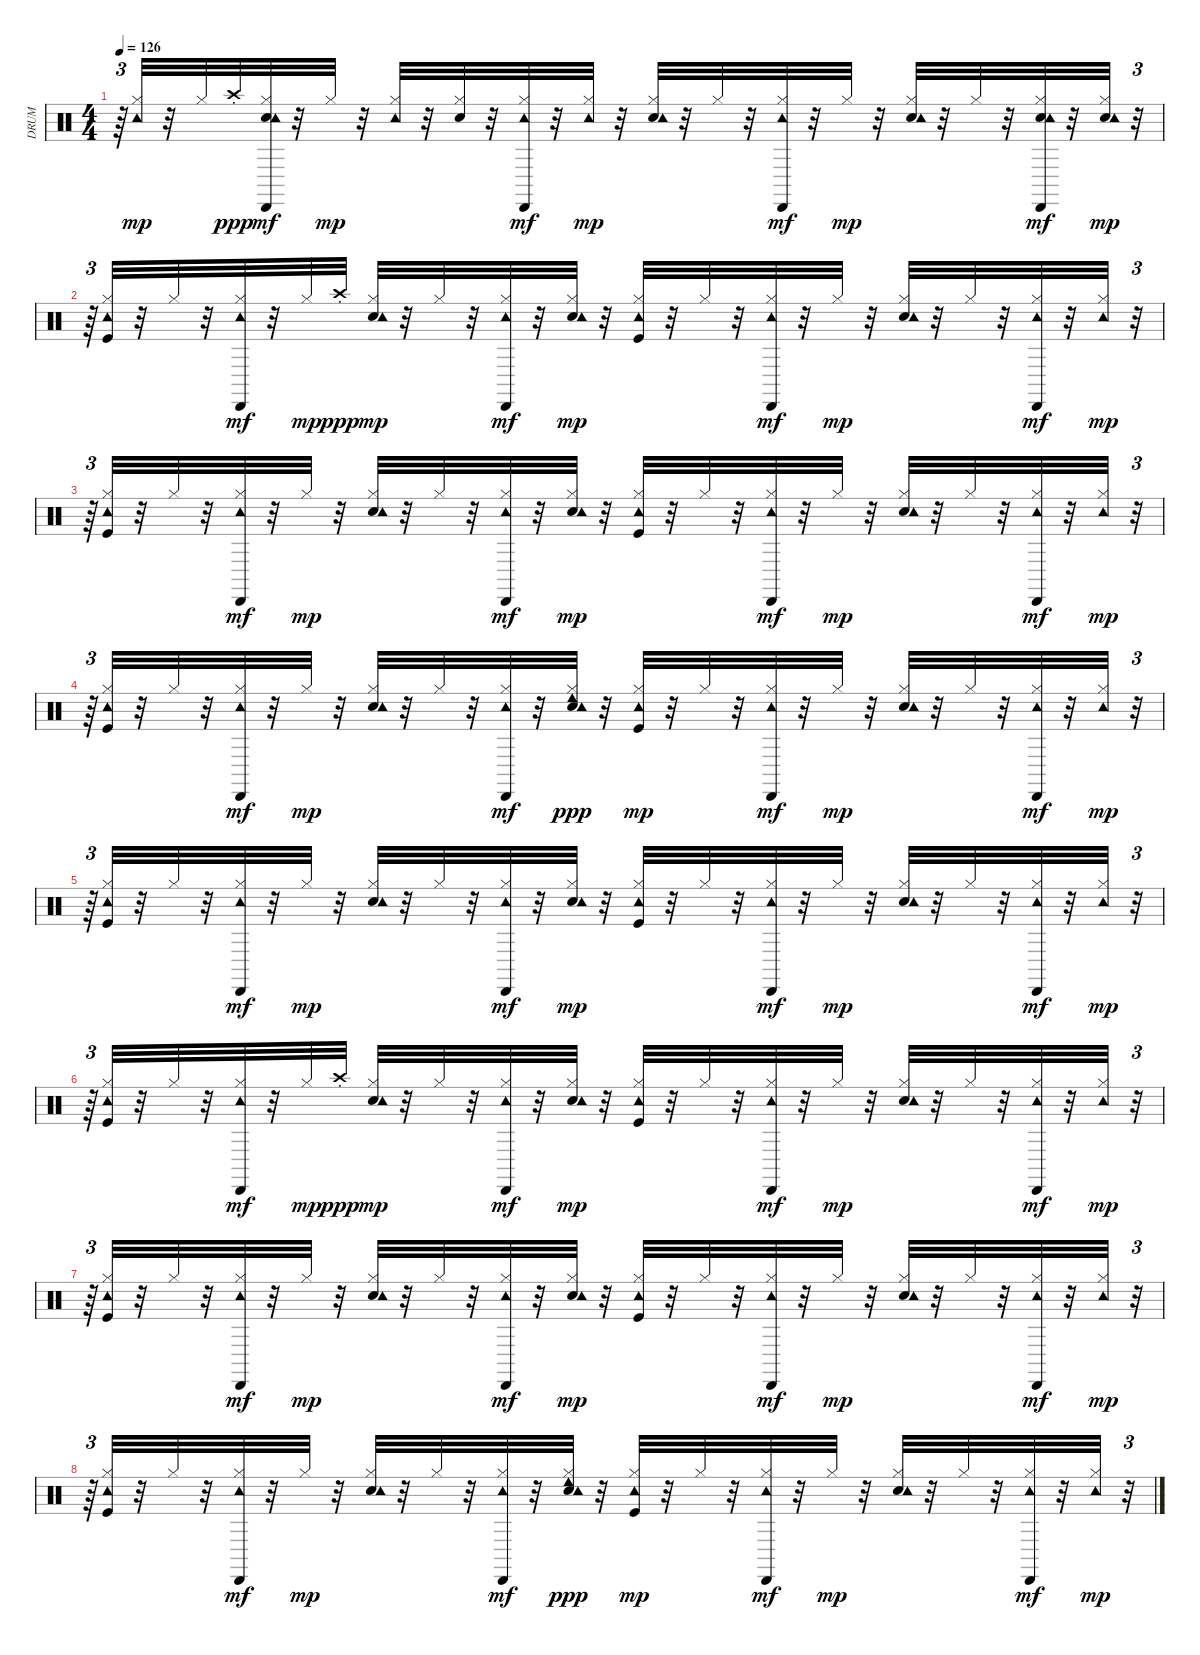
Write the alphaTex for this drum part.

\track ("DRUM" "DRUM") {instrument percussion}
\staff {score}
\articulation defaults
\ts (4 4)
\tempo 126
\clef neutral
\ks c
r.64{tu (3 2) dy mp} ("Hi-Hat (closed)" "Tambourine (hit)").32 r.32 "Hi-Hat (closed)".32 "Crash high (choke)".32{dy ppp} ("Snare (hit) 2" "Hi-Hat (closed)" "Tambourine (hit)" "Cabasa (hit)").32{dy mf} r.32 "Hi-Hat (closed)".32{dy mp} r.32 ("Hi-Hat (closed)" "Tambourine (hit)").32 r.32 ("Snare (hit) 2" "Hi-Hat (closed)").32 r.32 ("Hi-Hat (closed)" "Tambourine (hit)" "Cabasa (hit)").32{dy mf} r.32 ("Hi-Hat (closed)" "Tambourine (hit)").32{dy mp} r.32 ("Snare (hit) 2" "Hi-Hat (closed)" "Tambourine (hit)").32 r.32 "Hi-Hat (closed)".32 r.32 ("Hi-Hat (closed)" "Tambourine (hit)" "Cabasa (hit)").32{dy mf} r.32 "Hi-Hat (closed)".32{dy mp} r.32 ("Snare (hit) 2" "Hi-Hat (closed)" "Tambourine (hit)").32 r.32 "Hi-Hat (closed)".32 r.32 ("Snare (hit) 2" "Hi-Hat (closed)" "Tambourine (hit)" "Cabasa (hit)").32{dy mf} r.32 ("Snare (hit) 2" "Hi-Hat (closed)" "Tambourine (hit)").32{dy mp} r.32{tu (3 2)} |
r.64{tu (3 2)} ("Kick (hit)" "Hi-Hat (closed)" "Tambourine (hit)").32 r.32 "Hi-Hat (closed)".32 r.32 ("Hi-Hat (closed)" "Tambourine (hit)" "Cabasa (hit)").32{dy mf} r.32 "Hi-Hat (closed)".32{dy mp} "Crash high (choke)".32{dy ppp} ("Snare (hit) 2" "Hi-Hat (closed)" "Tambourine (hit)").32{dy mp} r.32 "Hi-Hat (closed)".32 r.32 ("Hi-Hat (closed)" "Tambourine (hit)" "Cabasa (hit)").32{dy mf} r.32 ("Snare (hit) 2" "Hi-Hat (closed)" "Tambourine (hit)").32{dy mp} r.32 ("Kick (hit)" "Hi-Hat (closed)" "Tambourine (hit)").32 r.32 "Hi-Hat (closed)".32 r.32 ("Hi-Hat (closed)" "Tambourine (hit)" "Cabasa (hit)").32{dy mf} r.32 "Hi-Hat (closed)".32{dy mp} r.32 ("Snare (hit) 2" "Hi-Hat (closed)" "Tambourine (hit)").32 r.32 "Hi-Hat (closed)".32 r.32 ("Hi-Hat (closed)" "Tambourine (hit)" "Cabasa (hit)").32{dy mf} r.32 ("Hi-Hat (closed)" "Tambourine (hit)").32{dy mp} r.32{tu (3 2)} |
r.64{tu (3 2)} ("Kick (hit)" "Hi-Hat (closed)" "Tambourine (hit)").32 r.32 "Hi-Hat (closed)".32 r.32 ("Hi-Hat (closed)" "Tambourine (hit)" "Cabasa (hit)").32{dy mf} r.32 "Hi-Hat (closed)".32{dy mp} r.32 ("Snare (hit) 2" "Hi-Hat (closed)" "Tambourine (hit)").32 r.32 "Hi-Hat (closed)".32 r.32 ("Hi-Hat (closed)" "Tambourine (hit)" "Cabasa (hit)").32{dy mf} r.32 ("Snare (hit) 2" "Hi-Hat (closed)" "Tambourine (hit)").32{dy mp} r.32 ("Kick (hit)" "Hi-Hat (closed)" "Tambourine (hit)").32 r.32 "Hi-Hat (closed)".32 r.32 ("Hi-Hat (closed)" "Tambourine (hit)" "Cabasa (hit)").32{dy mf} r.32 "Hi-Hat (closed)".32{dy mp} r.32 ("Snare (hit) 2" "Hi-Hat (closed)" "Tambourine (hit)").32 r.32 "Hi-Hat (closed)".32 r.32 ("Hi-Hat (closed)" "Tambourine (hit)" "Cabasa (hit)").32{dy mf} r.32 ("Hi-Hat (closed)" "Tambourine (hit)").32{dy mp} r.32{tu (3 2)} |
r.64{tu (3 2)} ("Kick (hit)" "Hi-Hat (closed)" "Tambourine (hit)").32 r.32 "Hi-Hat (closed)".32 r.32 ("Hi-Hat (closed)" "Tambourine (hit)" "Cabasa (hit)").32{dy mf} r.32 "Hi-Hat (closed)".32{dy mp} r.32 ("Snare (hit) 2" "Hi-Hat (closed)" "Tambourine (hit)").32 r.32 "Hi-Hat (closed)".32 r.32 ("Hi-Hat (closed)" "Tambourine (hit)" "Cabasa (hit)").32{dy mf} r.32 ("Snare (hit) 2" "Hi-Hat (closed)" "Tambourine (hit)" "Cowbell low (hit)").32{dy ppp} r.32 ("Kick (hit)" "Hi-Hat (closed)" "Tambourine (hit)").32{dy mp} r.32 "Hi-Hat (closed)".32 r.32 ("Hi-Hat (closed)" "Tambourine (hit)" "Cabasa (hit)").32{dy mf} r.32 "Hi-Hat (closed)".32{dy mp} r.32 ("Snare (hit) 2" "Hi-Hat (closed)" "Tambourine (hit)").32 r.32 "Hi-Hat (closed)".32 r.32 ("Hi-Hat (closed)" "Tambourine (hit)" "Cabasa (hit)").32{dy mf} r.32 ("Hi-Hat (closed)" "Tambourine (hit)").32{dy mp} r.32{tu (3 2)} |
r.64{tu (3 2)} ("Kick (hit)" "Hi-Hat (closed)" "Tambourine (hit)").32 r.32 "Hi-Hat (closed)".32 r.32 ("Hi-Hat (closed)" "Tambourine (hit)" "Cabasa (hit)").32{dy mf} r.32 "Hi-Hat (closed)".32{dy mp} r.32 ("Snare (hit) 2" "Hi-Hat (closed)" "Tambourine (hit)").32 r.32 "Hi-Hat (closed)".32 r.32 ("Hi-Hat (closed)" "Tambourine (hit)" "Cabasa (hit)").32{dy mf} r.32 ("Snare (hit) 2" "Hi-Hat (closed)" "Tambourine (hit)").32{dy mp} r.32 ("Kick (hit)" "Hi-Hat (closed)" "Tambourine (hit)").32 r.32 "Hi-Hat (closed)".32 r.32 ("Hi-Hat (closed)" "Tambourine (hit)" "Cabasa (hit)").32{dy mf} r.32 "Hi-Hat (closed)".32{dy mp} r.32 ("Snare (hit) 2" "Hi-Hat (closed)" "Tambourine (hit)").32 r.32 "Hi-Hat (closed)".32 r.32 ("Hi-Hat (closed)" "Tambourine (hit)" "Cabasa (hit)").32{dy mf} r.32 ("Hi-Hat (closed)" "Tambourine (hit)").32{dy mp} r.32{tu (3 2)} |
r.64{tu (3 2)} ("Kick (hit)" "Hi-Hat (closed)" "Tambourine (hit)").32 r.32 "Hi-Hat (closed)".32 r.32 ("Hi-Hat (closed)" "Tambourine (hit)" "Cabasa (hit)").32{dy mf} r.32 "Hi-Hat (closed)".32{dy mp} "Crash high (choke)".32{dy ppp} ("Snare (hit) 2" "Hi-Hat (closed)" "Tambourine (hit)").32{dy mp} r.32 "Hi-Hat (closed)".32 r.32 ("Hi-Hat (closed)" "Tambourine (hit)" "Cabasa (hit)").32{dy mf} r.32 ("Snare (hit) 2" "Hi-Hat (closed)" "Tambourine (hit)").32{dy mp} r.32 ("Kick (hit)" "Hi-Hat (closed)" "Tambourine (hit)").32 r.32 "Hi-Hat (closed)".32 r.32 ("Hi-Hat (closed)" "Tambourine (hit)" "Cabasa (hit)").32{dy mf} r.32 "Hi-Hat (closed)".32{dy mp} r.32 ("Snare (hit) 2" "Hi-Hat (closed)" "Tambourine (hit)").32 r.32 "Hi-Hat (closed)".32 r.32 ("Hi-Hat (closed)" "Tambourine (hit)" "Cabasa (hit)").32{dy mf} r.32 ("Hi-Hat (closed)" "Tambourine (hit)").32{dy mp} r.32{tu (3 2)} |
r.64{tu (3 2)} ("Kick (hit)" "Hi-Hat (closed)" "Tambourine (hit)").32 r.32 "Hi-Hat (closed)".32 r.32 ("Hi-Hat (closed)" "Tambourine (hit)" "Cabasa (hit)").32{dy mf} r.32 "Hi-Hat (closed)".32{dy mp} r.32 ("Snare (hit) 2" "Hi-Hat (closed)" "Tambourine (hit)").32 r.32 "Hi-Hat (closed)".32 r.32 ("Hi-Hat (closed)" "Tambourine (hit)" "Cabasa (hit)").32{dy mf} r.32 ("Snare (hit) 2" "Hi-Hat (closed)" "Tambourine (hit)").32{dy mp} r.32 ("Kick (hit)" "Hi-Hat (closed)" "Tambourine (hit)").32 r.32 "Hi-Hat (closed)".32 r.32 ("Hi-Hat (closed)" "Tambourine (hit)" "Cabasa (hit)").32{dy mf} r.32 "Hi-Hat (closed)".32{dy mp} r.32 ("Snare (hit) 2" "Hi-Hat (closed)" "Tambourine (hit)").32 r.32 "Hi-Hat (closed)".32 r.32 ("Hi-Hat (closed)" "Tambourine (hit)" "Cabasa (hit)").32{dy mf} r.32 ("Hi-Hat (closed)" "Tambourine (hit)").32{dy mp} r.32{tu (3 2)} |
r.64{tu (3 2)} ("Kick (hit)" "Hi-Hat (closed)" "Tambourine (hit)").32 r.32 "Hi-Hat (closed)".32 r.32 ("Hi-Hat (closed)" "Tambourine (hit)" "Cabasa (hit)").32{dy mf} r.32 "Hi-Hat (closed)".32{dy mp} r.32 ("Snare (hit) 2" "Hi-Hat (closed)" "Tambourine (hit)").32 r.32 "Hi-Hat (closed)".32 r.32 ("Hi-Hat (closed)" "Tambourine (hit)" "Cabasa (hit)").32{dy mf} r.32 ("Snare (hit) 2" "Hi-Hat (closed)" "Tambourine (hit)" "Cowbell low (hit)").32{dy ppp} r.32 ("Kick (hit)" "Hi-Hat (closed)" "Tambourine (hit)").32{dy mp} r.32 "Hi-Hat (closed)".32 r.32 ("Hi-Hat (closed)" "Tambourine (hit)" "Cabasa (hit)").32{dy mf} r.32 "Hi-Hat (closed)".32{dy mp} r.32 ("Snare (hit) 2" "Hi-Hat (closed)" "Tambourine (hit)").32 r.32 "Hi-Hat (closed)".32 r.32 ("Hi-Hat (closed)" "Tambourine (hit)" "Cabasa (hit)").32{dy mf} r.32 ("Hi-Hat (closed)" "Tambourine (hit)").32{dy mp} r.32{tu (3 2)}
